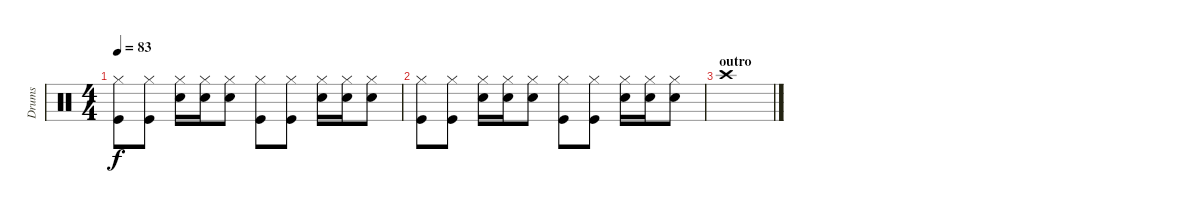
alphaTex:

\track ("Drums" "Drums") {instrument percussion}
\staff {score}
\articulation defaults
\ts (4 4)
\tempo 83
\clef neutral
\ks c
("Hi-Hat (closed)" "Kick (hit)").8{dy f} ("Hi-Hat (closed)" "Kick (hit)").8 ("Hi-Hat (closed)" "Electric Snare (hit)").16 ("Hi-Hat (closed)" "Snare (hit) 2").16 ("Hi-Hat (closed)" "Snare (hit) 2").8 ("Hi-Hat (closed)" "Kick (hit)").8 ("Hi-Hat (closed)" "Kick (hit)").8 ("Hi-Hat (closed)" "Electric Snare (hit)").16 ("Hi-Hat (closed)" "Snare (hit) 2").16 ("Hi-Hat (closed)" "Snare (hit) 2").8 |
("Hi-Hat (closed)" "Kick (hit)").8 ("Hi-Hat (closed)" "Kick (hit)").8 ("Hi-Hat (closed)" "Electric Snare (hit)").16 ("Hi-Hat (closed)" "Snare (hit) 2").16 ("Hi-Hat (closed)" "Snare (hit) 2").8 ("Hi-Hat (closed)" "Kick (hit)").8 ("Hi-Hat (closed)" "Kick (hit)").8 ("Hi-Hat (closed)" "Electric Snare (hit)").16 ("Hi-Hat (closed)" "Snare (hit) 2").16 ("Hi-Hat (closed)" "Snare (hit) 2").8 |
\section ("" "outro")
"Crash high (hit)".1
